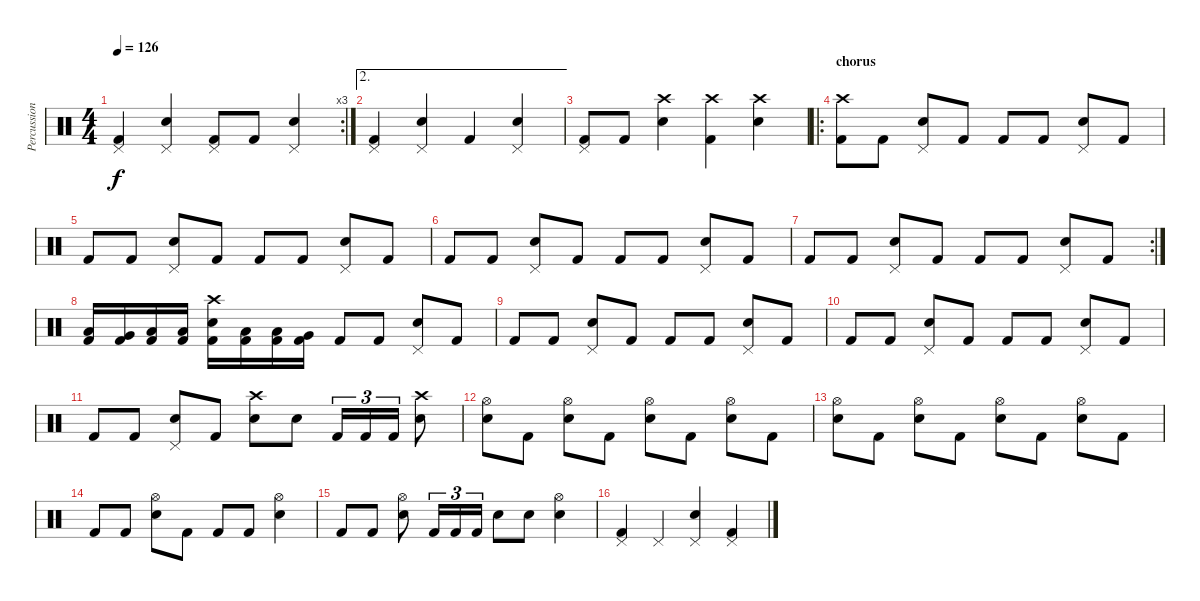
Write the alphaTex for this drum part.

\track ("Percussion" "Percussion") {instrument percussion}
\staff {score}
\articulation defaults
\rc 3
\ts (4 4)
\tempo 126
\clef neutral
\ks c
("Pedal Hi-Hat (hit)" "Kick (hit) 2").4{dy f} ("Pedal Hi-Hat (hit)" "Electric Snare (hit)").4 ("Pedal Hi-Hat (hit)" "Kick (hit) 2").8 "Kick (hit) 2".8 ("Pedal Hi-Hat (hit)" "Electric Snare (hit)").4 |
\ae 2
("Pedal Hi-Hat (hit)" "Kick (hit) 2").4 ("Pedal Hi-Hat (hit)" "Electric Snare (hit)").4 "Kick (hit) 2".4 ("Pedal Hi-Hat (hit)" "Electric Snare (hit)").4 |
("Pedal Hi-Hat (hit)" "Kick (hit) 2").8 "Kick (hit) 2".8 ("Crash high (hit)" "Electric Snare (hit)").4 ("Crash high (hit)" "Kick (hit) 2").4 ("Crash high (hit)" "Electric Snare (hit)").4 |
\ro
\section ("" "chorus")
("Crash high (hit)" "Kick (hit) 2").8 "Kick (hit) 2".8 ("Pedal Hi-Hat (hit)" "Electric Snare (hit)").8 "Kick (hit) 2".8 "Kick (hit) 2".8 "Kick (hit) 2".8 ("Pedal Hi-Hat (hit)" "Electric Snare (hit)").8 "Kick (hit) 2".8 |
"Kick (hit) 2".8 "Kick (hit) 2".8 ("Pedal Hi-Hat (hit)" "Electric Snare (hit)").8 "Kick (hit) 2".8 "Kick (hit) 2".8 "Kick (hit) 2".8 ("Pedal Hi-Hat (hit)" "Electric Snare (hit)").8 "Kick (hit) 2".8 |
"Kick (hit) 2".8 "Kick (hit) 2".8 ("Pedal Hi-Hat (hit)" "Electric Snare (hit)").8 "Kick (hit) 2".8 "Kick (hit) 2".8 "Kick (hit) 2".8 ("Pedal Hi-Hat (hit)" "Electric Snare (hit)").8 "Kick (hit) 2".8 |
\rc 2 "Kick (hit) 2".8 "Kick (hit) 2".8
("Pedal Hi-Hat (hit)" "Electric Snare (hit)").8 "Kick (hit) 2".8 "Kick (hit) 2".8 "Kick (hit) 2".8 ("Pedal Hi-Hat (hit)" "Electric Snare (hit)").8 "Kick (hit) 2".8 |
("Low Tom (hit)" "Kick (hit) 2").16 ("Very Low Tom (hit)" "Kick (hit) 2").16 ("Low Floor Tom (hit)" "Kick (hit) 2").16 ("Low Tom (hit)" "Kick (hit) 2").16 ("Crash high (hit)" "Electric Snare (hit)" "Kick (hit) 2").16 ("Low Floor Tom (hit)" "Kick (hit) 2").16 ("Low Tom (hit)" "Kick (hit) 2").16 ("Very Low Tom (hit)" "Kick (hit) 2").16 "Kick (hit) 2".8 "Kick (hit) 2".8 ("Pedal Hi-Hat (hit)" "Electric Snare (hit)").8 "Kick (hit) 2".8 |
"Kick (hit) 2".8 "Kick (hit) 2".8 ("Pedal Hi-Hat (hit)" "Electric Snare (hit)").8 "Kick (hit) 2".8 "Kick (hit) 2".8 "Kick (hit) 2".8 ("Pedal Hi-Hat (hit)" "Electric Snare (hit)").8 "Kick (hit) 2".8 |
"Kick (hit) 2".8 "Kick (hit) 2".8 ("Pedal Hi-Hat (hit)" "Electric Snare (hit)").8 "Kick (hit) 2".8 "Kick (hit) 2".8 "Kick (hit) 2".8 ("Pedal Hi-Hat (hit)" "Electric Snare (hit)").8 "Kick (hit) 2".8 |
"Kick (hit) 2".8 "Kick (hit) 2".8 ("Pedal Hi-Hat (hit)" "Electric Snare (hit)").8 "Kick (hit) 2".8 ("Crash high (hit)" "Electric Snare (hit)").8 "Electric Snare (hit)".8 "Kick (hit) 2".16{tu (3 2)} "Kick (hit) 2".16{tu (3 2)} "Kick (hit) 2".16{tu (3 2)} ("Crash high (hit)" "Electric Snare (hit)").8 |
("Hi-Hat (open)" "Electric Snare (hit)").8 "Kick (hit) 2".8 ("Hi-Hat (open)" "Electric Snare (hit)").8 "Kick (hit) 2".8 ("Hi-Hat (open)" "Electric Snare (hit)").8 "Kick (hit) 2".8 ("Hi-Hat (open)" "Electric Snare (hit)").8 "Kick (hit) 2".8 |
("Hi-Hat (open)" "Electric Snare (hit)").8 "Kick (hit) 2".8 ("Hi-Hat (open)" "Electric Snare (hit)").8 "Kick (hit) 2".8 ("Hi-Hat (open)" "Electric Snare (hit)").8 "Kick (hit) 2".8 ("Hi-Hat (open)" "Electric Snare (hit)").8 "Kick (hit) 2".8 |
"Kick (hit) 2".8 "Kick (hit) 2".8 ("Hi-Hat (open)" "Electric Snare (hit)").8 "Kick (hit) 2".8 "Kick (hit) 2".8 "Kick (hit) 2".8 ("Hi-Hat (open)" "Electric Snare (hit)").4 |
"Kick (hit) 2".8 "Kick (hit) 2".8 ("Hi-Hat (open)" "Electric Snare (hit)").8 "Kick (hit) 2".16{tu (3 2)} "Kick (hit) 2".16{tu (3 2)} "Kick (hit) 2".16{tu (3 2)} "Electric Snare (hit)".8 "Electric Snare (hit)".8 ("Hi-Hat (open)" "Electric Snare (hit)").4 |
("Pedal Hi-Hat (hit)" "Kick (hit) 2").4 "Pedal Hi-Hat (hit)".4 ("Pedal Hi-Hat (hit)" "Electric Snare (hit)").4 ("Pedal Hi-Hat (hit)" "Kick (hit) 2").4
